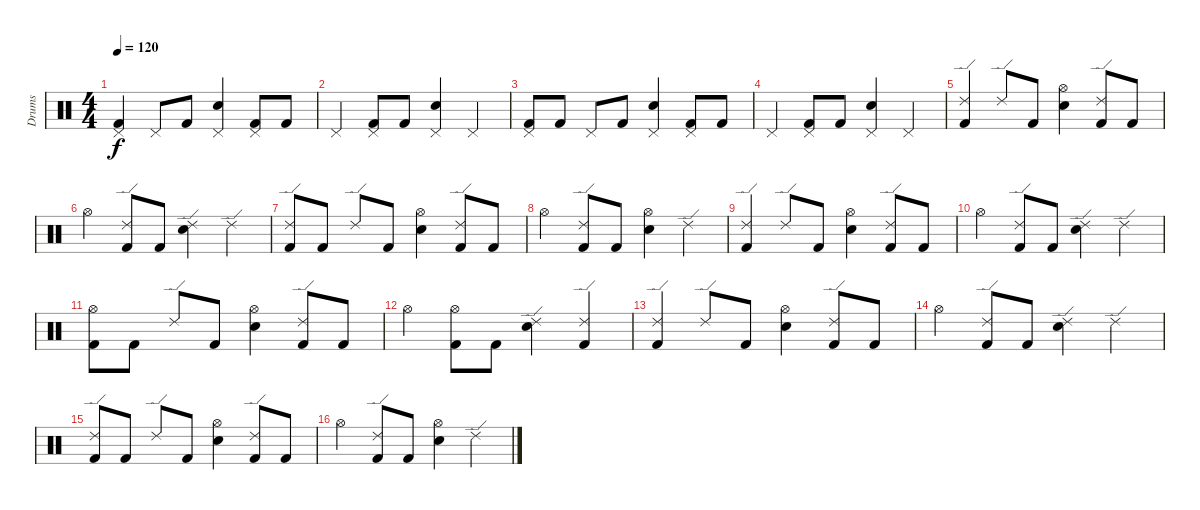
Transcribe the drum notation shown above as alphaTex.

\track ("Drums" "Drums") {instrument percussion}
\staff {score}
\articulation defaults
\ts (4 4)
\tempo 120
\clef neutral
\ks c
("Pedal Hi-Hat (hit)" "Kick (hit) 2").4{dy f} "Pedal Hi-Hat (hit)".8 "Kick (hit) 2".8 ("Pedal Hi-Hat (hit)" "Snare (hit) 2").4 ("Pedal Hi-Hat (hit)" "Kick (hit) 2").8 "Kick (hit) 2".8 |
"Pedal Hi-Hat (hit)".4 ("Pedal Hi-Hat (hit)" "Kick (hit) 2").8 "Kick (hit) 2".8 ("Pedal Hi-Hat (hit)" "Snare (hit) 2").4 "Pedal Hi-Hat (hit)".4 |
("Pedal Hi-Hat (hit)" "Kick (hit) 2").8 "Kick (hit) 2".8 "Pedal Hi-Hat (hit)".8 "Kick (hit) 2".8 ("Pedal Hi-Hat (hit)" "Snare (hit) 2").4 ("Pedal Hi-Hat (hit)" "Kick (hit) 2").8 "Kick (hit) 2".8 |
"Pedal Hi-Hat (hit)".4 ("Pedal Hi-Hat (hit)" "Kick (hit) 2").8 "Kick (hit) 2".8 ("Pedal Hi-Hat (hit)" "Snare (hit) 2").4 "Pedal Hi-Hat (hit)".4 |
("Ride (edge) 2" "Kick (hit) 2").4 "Ride (edge) 2".8 "Kick (hit) 2".8 ("Hi-Hat (open)" "Snare (hit) 2").4 ("Ride (edge) 2" "Kick (hit) 2").8 "Kick (hit) 2".8 |
"Hi-Hat (open)".4 ("Ride (edge) 2" "Kick (hit) 2").8 "Kick (hit) 2".8 ("Ride (edge) 2" "Snare (hit) 2").4 "Ride (edge) 2".4 |
("Ride (edge) 2" "Kick (hit) 2").8 "Kick (hit) 2".8 "Ride (edge) 2".8 "Kick (hit) 2".8 ("Hi-Hat (open)" "Snare (hit) 2").4 ("Ride (edge) 2" "Kick (hit) 2").8 "Kick (hit) 2".8 |
"Hi-Hat (open)".4 ("Ride (edge) 2" "Kick (hit) 2").8 "Kick (hit) 2".8 ("Hi-Hat (open)" "Snare (hit) 2").4 "Ride (edge) 2".4 |
("Ride (edge) 2" "Kick (hit) 2").4 "Ride (edge) 2".8 "Kick (hit) 2".8 ("Hi-Hat (open)" "Snare (hit) 2").4 ("Ride (edge) 2" "Kick (hit) 2").8 "Kick (hit) 2".8 |
"Hi-Hat (open)".4 ("Ride (edge) 2" "Kick (hit) 2").8 "Kick (hit) 2".8 ("Ride (edge) 2" "Snare (hit) 2").4 "Ride (edge) 2".4 |
("Hi-Hat (open)" "Kick (hit) 2").8 "Kick (hit) 2".8 "Ride (edge) 2".8 "Kick (hit) 2".8 ("Hi-Hat (open)" "Snare (hit) 2").4 ("Ride (edge) 2" "Kick (hit) 2").8 "Kick (hit) 2".8 |
"Hi-Hat (open)".4 ("Hi-Hat (open)" "Kick (hit) 2").8 "Kick (hit) 2".8 ("Ride (edge) 2" "Snare (hit) 2").4 ("Ride (edge) 2" "Kick (hit) 2").4 |
("Ride (edge) 2" "Kick (hit) 2").4 "Ride (edge) 2".8 "Kick (hit) 2".8 ("Hi-Hat (open)" "Snare (hit) 2").4 ("Ride (edge) 2" "Kick (hit) 2").8 "Kick (hit) 2".8 |
"Hi-Hat (open)".4 ("Ride (edge) 2" "Kick (hit) 2").8 "Kick (hit) 2".8 ("Ride (edge) 2" "Snare (hit) 2").4 "Ride (edge) 2".4 |
("Ride (edge) 2" "Kick (hit) 2").8 "Kick (hit) 2".8 "Ride (edge) 2".8 "Kick (hit) 2".8 ("Hi-Hat (open)" "Snare (hit) 2").4 ("Ride (edge) 2" "Kick (hit) 2").8 "Kick (hit) 2".8 |
"Hi-Hat (open)".4 ("Ride (edge) 2" "Kick (hit) 2").8 "Kick (hit) 2".8 ("Hi-Hat (open)" "Snare (hit) 2").4 "Ride (edge) 2".4
